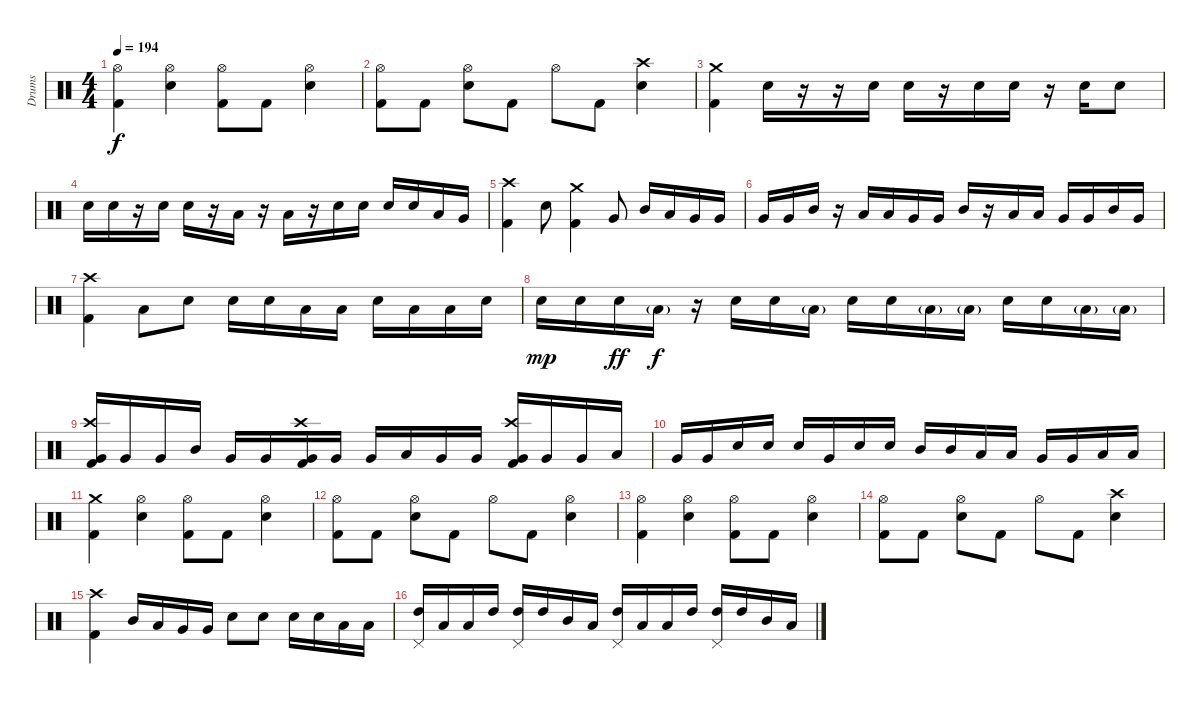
\track ("Drums" "Drums") {instrument percussion}
\staff {score}
\articulation defaults
\ts (4 4)
\tempo 194
\clef neutral
\ks c
("Hi-Hat (open)" "Kick (hit) 2").4{dy f} ("Hi-Hat (open)" "Snare (hit) 2").4 ("Hi-Hat (open)" "Kick (hit) 2").8 "Kick (hit) 2".8 ("Hi-Hat (open)" "Snare (hit) 2").4 |
("Hi-Hat (open)" "Kick (hit) 2").8 "Kick (hit) 2".8 ("Hi-Hat (open)" "Snare (hit) 2").8 "Kick (hit) 2".8 "Hi-Hat (open)".8 "Kick (hit) 2".8 ("Crash high (hit)" "Snare (hit) 2").4 |
("Crash medium (hit)" "Kick (hit) 2").4 "Snare (hit) 2".16 r.16 r.16 "Snare (hit) 2".16 "Snare (hit) 2".16 r.16 "Snare (hit) 2".16 "Snare (hit) 2".16 r.16 "Snare (hit) 2".16 "Snare (hit) 2".8 |
"Snare (hit) 2".16 "Snare (hit) 2".16 r.16 "Snare (hit) 2".16 "Snare (hit) 2".16 r.16 "Low Tom (hit)".16 r.16 "Low Tom (hit)".16 r.16 "Snare (hit) 2".16 "Snare (hit) 2".16 "Snare (hit) 2".16 "Snare (hit) 2".16 "Low Tom (hit)".16 "Very Low Tom (hit)".16 |
("Crash high (hit)" "Kick (hit) 2").4 "Snare (hit) 2".8 ("Crash medium (hit)" "Kick (hit) 2").4 "Very Low Tom (hit)".8 "Mid Tom (hit)".16 "Low Tom (hit)".16 "Very Low Tom (hit)".16 "Very Low Tom (hit)".16 |
"Very Low Tom (hit)".16 "Very Low Tom (hit)".16 "Mid Tom (hit)".16 r.16 "Low Tom (hit)".16 "Low Tom (hit)".16 "Very Low Tom (hit)".16 "Very Low Tom (hit)".16 "Mid Tom (hit)".16 r.16 "Low Tom (hit)".16 "Low Tom (hit)".16 "Very Low Tom (hit)".16 "Very Low Tom (hit)".16 "Mid Tom (hit)".16 "Very Low Tom (hit)".16 |
("Crash high (hit)" "Kick (hit) 2").4 "Low Floor Tom (hit)".8 "Snare (hit) 2".8 "Snare (hit) 2".16 "Snare (hit) 2".16 "Low Tom (hit)".16 "Low Tom (hit)".16 "Snare (hit) 2".16 "Low Tom (hit)".16 "Low Tom (hit)".16 "Snare (hit) 2".16 |
"Snare (hit) 2".16{dy mp} "Snare (hit) 2".16 "Snare (hit) 2".16{dy ff} "Low Tom (hit)"{g}.16{dy f} r.16 "Snare (hit) 2".16 "Snare (hit) 2".16 "Low Tom (hit)"{g}.16 "Snare (hit) 2".16 "Snare (hit) 2".16 "Low Tom (hit)"{g}.16 "Low Tom (hit)"{g}.16 "Snare (hit) 2".16 "Snare (hit) 2".16 "Low Tom (hit)"{g}.16 "Low Tom (hit)"{g}.16 |
("Crash high (hit)" "Very Low Tom (hit)" "Kick (hit) 2").16 "Very Low Tom (hit)".16 "Very Low Tom (hit)".16 "Mid Tom (hit)".16 "Very Low Tom (hit)".16 "Very Low Tom (hit)".16 ("Crash high (hit)" "Very Low Tom (hit)" "Kick (hit) 2").16 "Very Low Tom (hit)".16 "Very Low Tom (hit)".16 "Low Tom (hit)".16 "Very Low Tom (hit)".16 "Very Low Tom (hit)".16 ("Crash high (hit)" "Very Low Tom (hit)" "Kick (hit) 2").16 "Very Low Tom (hit)".16 "Very Low Tom (hit)".16 "Low Floor Tom (hit)".16 |
"Very Low Tom (hit)".16 "Very Low Tom (hit)".16 "Snare (hit) 2".16 "Snare (hit) 2".16 "Snare (hit) 2".16 "Very Low Tom (hit)".16 "Snare (hit) 2".16 "Snare (hit) 2".16 "Mid Tom (hit)".16 "Mid Tom (hit)".16 "Low Tom (hit)".16 "Low Tom (hit)".16 "Very Low Tom (hit)".16 "Very Low Tom (hit)".16 "Low Floor Tom (hit)".16 "Low Floor Tom (hit)".16 |
("Crash medium (hit)" "Kick (hit) 2").4 ("Hi-Hat (open)" "Snare (hit) 2").4 ("Hi-Hat (open)" "Kick (hit) 2").8 "Kick (hit) 2".8 ("Hi-Hat (open)" "Snare (hit) 2").4 |
("Hi-Hat (open)" "Kick (hit) 2").8 "Kick (hit) 2".8 ("Hi-Hat (open)" "Snare (hit) 2").8 "Kick (hit) 2".8 "Hi-Hat (open)".8 "Kick (hit) 2".8 ("Hi-Hat (open)" "Snare (hit) 2").4 |
("Hi-Hat (open)" "Kick (hit) 2").4 ("Hi-Hat (open)" "Snare (hit) 2").4 ("Hi-Hat (open)" "Kick (hit) 2").8 "Kick (hit) 2".8 ("Hi-Hat (open)" "Snare (hit) 2").4 |
("Hi-Hat (open)" "Kick (hit) 2").8 "Kick (hit) 2".8 ("Hi-Hat (open)" "Snare (hit) 2").8 "Kick (hit) 2".8 "Hi-Hat (open)".8 "Kick (hit) 2".8 ("Crash high (hit)" "Snare (hit) 2").4 |
("Crash high (hit)" "Kick (hit) 2").4 "Mid Tom (hit)".16 "Low Tom (hit)".16 "Very Low Tom (hit)".16 "Very Low Tom (hit)".16 "Snare (hit) 2".8 "Snare (hit) 2".8 "Snare (hit) 2".16 "Snare (hit) 2".16 "Low Tom (hit)".16 "Low Tom (hit)".16 |
("Pedal Hi-Hat (hit)" "High Tom (hit)").16 "Low Tom (hit)".16 "Low Tom (hit)".16 "High Tom (hit)".16 ("Pedal Hi-Hat (hit)" "High Tom (hit)").16 "High Tom (hit)".16 "Mid Tom (hit)".16 "Low Tom (hit)".16 ("Pedal Hi-Hat (hit)" "High Tom (hit)").16 "Low Tom (hit)".16 "Low Tom (hit)".16 "High Tom (hit)".16 ("Pedal Hi-Hat (hit)" "High Tom (hit)").16 "High Tom (hit)".16 "Mid Tom (hit)".16 "Low Tom (hit)".16
